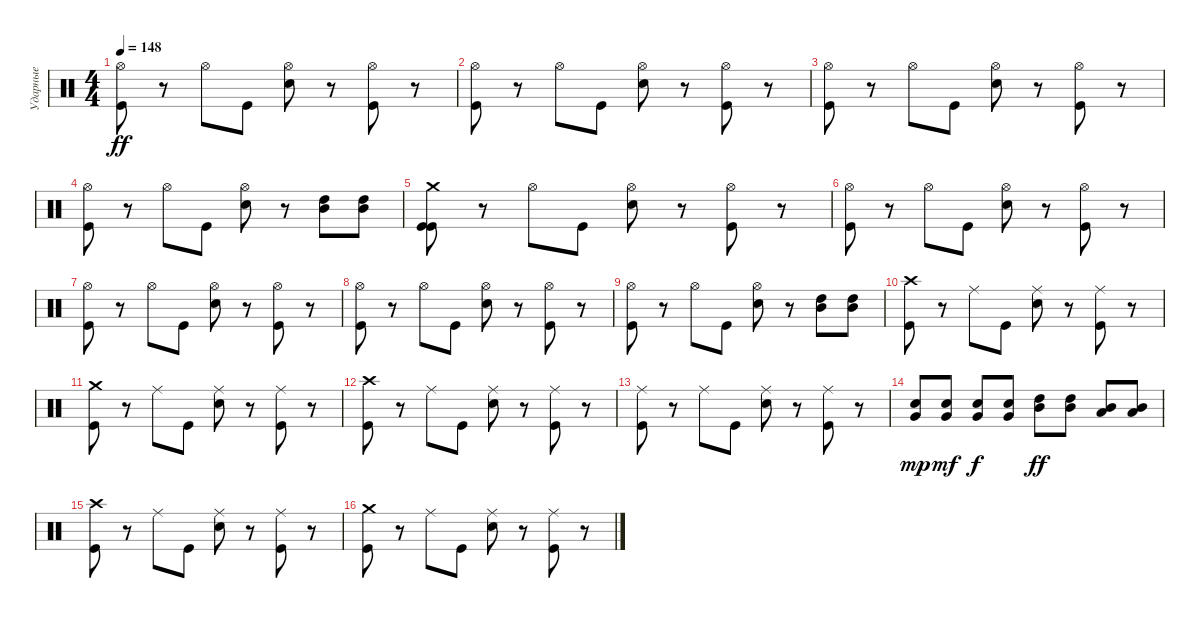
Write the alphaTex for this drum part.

\track ("Ударные" "Ударные") {instrument percussion}
\staff {score}
\articulation defaults
\ts (4 4)
\tempo 148
\clef neutral
\ks c
("Kick (hit)" "Hi-Hat (open)").8{dy ff} r.8 "Hi-Hat (open)".8 "Kick (hit)".8 ("Snare (hit) 2" "Hi-Hat (open)").8 r.8 ("Kick (hit)" "Hi-Hat (open)").8 r.8 |
("Hi-Hat (open)" "Kick (hit)").8 r.8 "Hi-Hat (open)".8 "Kick (hit)".8 ("Hi-Hat (open)" "Snare (hit) 2").8 r.8 ("Hi-Hat (open)" "Kick (hit)").8 r.8 |
("Hi-Hat (open)" "Kick (hit)").8 r.8 "Hi-Hat (open)".8 "Kick (hit)".8 ("Hi-Hat (open)" "Snare (hit) 2").8 r.8 ("Kick (hit)" "Hi-Hat (open)").8 r.8 |
("Hi-Hat (open)" "Kick (hit)").8 r.8 "Hi-Hat (open)".8 "Kick (hit)".8 ("Hi-Hat (open)" "Snare (hit) 2").8 r.8 ("Mid Tom (hit)" "High Tom (hit)").8 ("Mid Tom (hit)" "High Tom (hit)").8 |
("Crash medium (hit)" "Kick (hit)" "Kick (hit)").8 r.8 "Hi-Hat (open)".8 "Kick (hit)".8 ("Snare (hit) 2" "Hi-Hat (open)").8 r.8 ("Kick (hit)" "Hi-Hat (open)").8 r.8 |
("Kick (hit)" "Hi-Hat (open)").8 r.8 "Hi-Hat (open)".8 "Kick (hit)".8 ("Snare (hit) 2" "Hi-Hat (open)").8 r.8 ("Kick (hit)" "Hi-Hat (open)").8 r.8 |
("Hi-Hat (open)" "Kick (hit)").8 r.8 "Hi-Hat (open)".8 "Kick (hit)".8 ("Hi-Hat (open)" "Snare (hit) 2").8 r.8 ("Hi-Hat (open)" "Kick (hit)").8 r.8 |
("Hi-Hat (open)" "Kick (hit)").8 r.8 "Hi-Hat (open)".8 "Kick (hit)".8 ("Hi-Hat (open)" "Snare (hit) 2").8 r.8 ("Kick (hit)" "Hi-Hat (open)").8 r.8 |
("Hi-Hat (open)" "Kick (hit)").8 r.8 "Hi-Hat (open)".8 "Kick (hit)".8 ("Hi-Hat (open)" "Snare (hit) 2").8 r.8 ("Mid Tom (hit)" "High Tom (hit)").8 ("Mid Tom (hit)" "High Tom (hit)").8 |
("Kick (hit)" "Crash high (hit)").8 r.8 "Ride (middle)".8 "Kick (hit)".8 ("Ride (middle)" "Snare (hit) 2").8 r.8 ("Kick (hit)" "Ride (middle)").8 r.8 |
("Kick (hit)" "Crash medium (hit)").8 r.8 "Ride (middle)".8 "Kick (hit)".8 ("Ride (middle)" "Snare (hit) 2").8 r.8 ("Ride (middle)" "Kick (hit)").8 r.8 |
("Kick (hit)" "Crash high (hit)").8 r.8 "Ride (middle)".8 "Kick (hit)".8 ("Snare (hit) 2" "Ride (middle)").8 r.8 ("Kick (hit)" "Ride (middle)").8 r.8 |
("Ride (middle)" "Kick (hit)").8 r.8 "Ride (middle)".8 "Kick (hit)".8 ("Snare (hit) 2" "Ride (middle)").8 r.8 ("Ride (middle)" "Kick (hit)").8 r.8 |
("Very Low Tom (hit)" "Snare (hit) 2").8{dy mp} ("Very Low Tom (hit)" "Snare (hit) 2").8{dy mf} ("Very Low Tom (hit)" "Snare (hit) 2").8{dy f} ("Snare (hit) 2" "Very Low Tom (hit)").8 ("Mid Tom (hit)" "High Tom (hit)").8{dy ff} ("Mid Tom (hit)" "High Tom (hit)").8 ("Low Tom (hit)" "Mid Tom (hit)").8 ("Mid Tom (hit)" "Low Tom (hit)").8 |
("Kick (hit)" "Crash high (hit)").8 r.8 "Ride (middle)".8 "Kick (hit)".8 ("Ride (middle)" "Snare (hit) 2").8 r.8 ("Kick (hit)" "Ride (middle)").8 r.8 |
("Kick (hit)" "Crash medium (hit)").8 r.8 "Ride (middle)".8 "Kick (hit)".8 ("Ride (middle)" "Snare (hit) 2").8 r.8 ("Ride (middle)" "Kick (hit)").8 r.8
